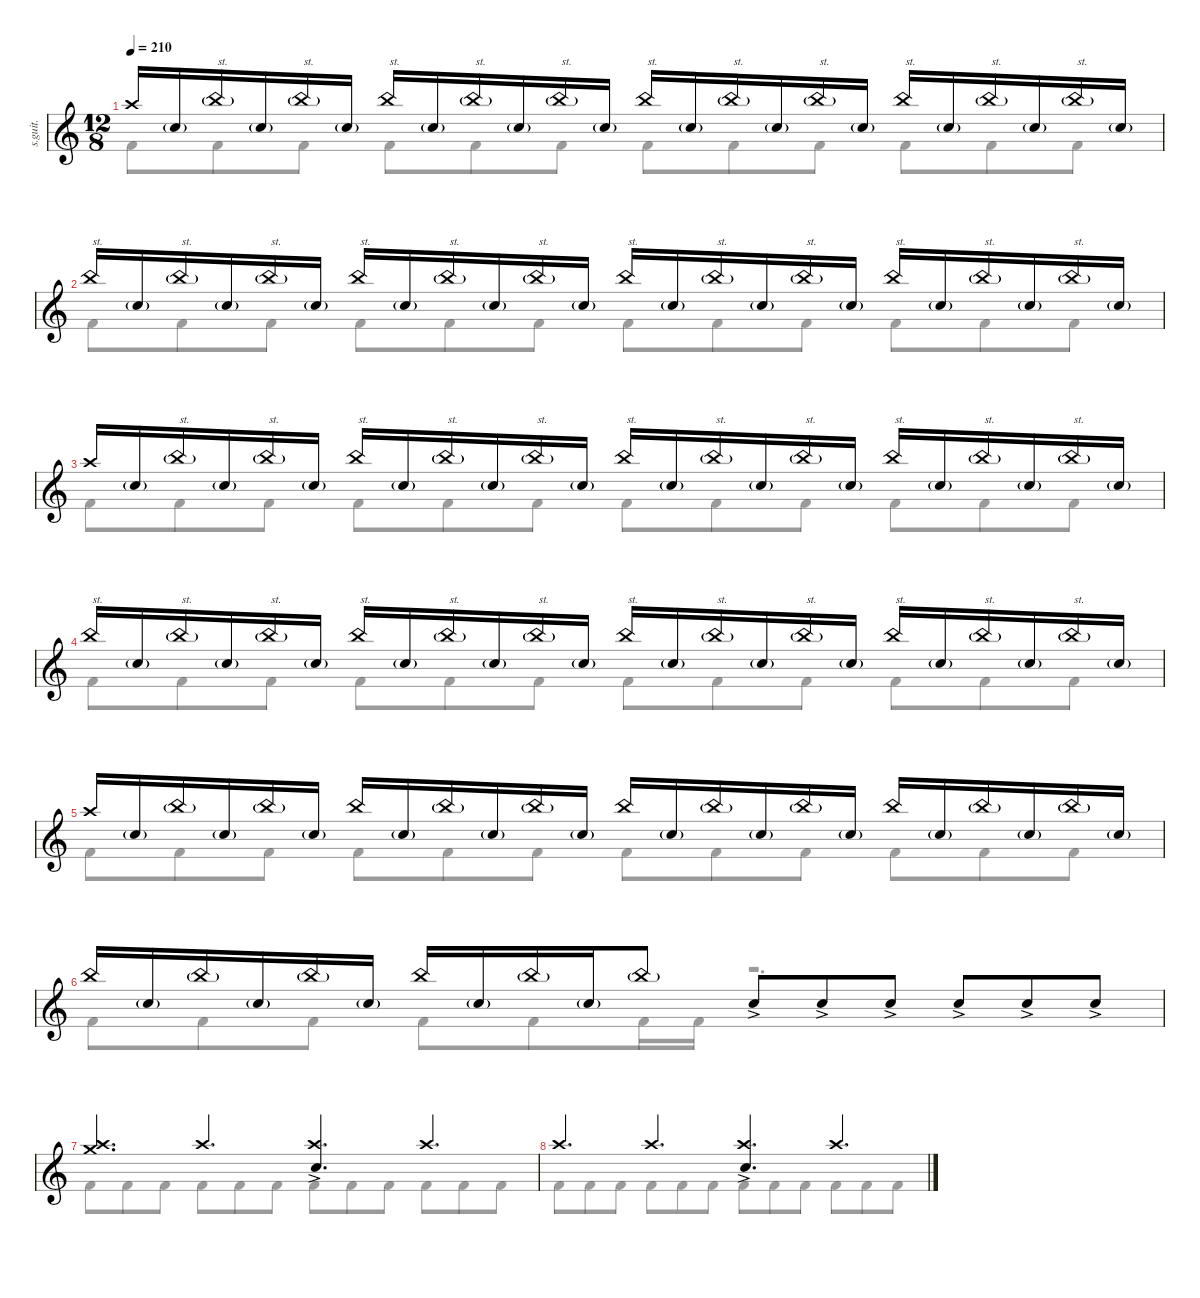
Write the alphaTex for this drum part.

\defaultSystemsLayout 4
\hideDynamics
\bracketExtendMode nobrackets
\track ("Percussion" "s.guit.") {instrument percussion}
\staff {score}
\articulation defaults
\voice
\ts (12 8)
\tempo 210
\clef g2
\ks c "Crash high (hit)".16{lyrics (0 "") lyrics (1 "") lyrics (2 "") lyrics (3 "") lyrics (4 "") dy f} "Snare (hit) 2"{g}.16{lyrics (0 "") lyrics (1 "") lyrics (2 "") lyrics (3 "") lyrics (4 "") dy ff} "China (hit)"{g}.16{txt "st." lyrics (0 "") lyrics (1 "") lyrics (2 "") lyrics (3 "") lyrics (4 "")} "Snare (hit) 2"{g}.16{lyrics (0 "") lyrics (1 "") lyrics (2 "") lyrics (3 "") lyrics (4 "")} "China (hit)"{g}.16{txt "st." lyrics (0 "") lyrics (1 "") lyrics (2 "") lyrics (3 "") lyrics (4 "")} "Snare (hit) 2"{g}.16{lyrics (0 "") lyrics (1 "") lyrics (2 "") lyrics (3 "") lyrics (4 "")} "China (hit)".16{txt "st." lyrics (0 "") lyrics (1 "") lyrics (2 "") lyrics (3 "") lyrics (4 "") dy f} "Snare (hit) 2"{g}.16{lyrics (0 "") lyrics (1 "") lyrics (2 "") lyrics (3 "") lyrics (4 "") dy ff} "China (hit)"{g}.16{txt "st." lyrics (0 "") lyrics (1 "") lyrics (2 "") lyrics (3 "") lyrics (4 "")} "Snare (hit) 2"{g}.16{lyrics (0 "") lyrics (1 "") lyrics (2 "") lyrics (3 "") lyrics (4 "")} "China (hit)"{g}.16{txt "st." lyrics (0 "") lyrics (1 "") lyrics (2 "") lyrics (3 "") lyrics (4 "")} "Snare (hit) 2"{g}.16{lyrics (0 "") lyrics (1 "") lyrics (2 "") lyrics (3 "") lyrics (4 "")} "China (hit)".16{txt "st." lyrics (0 "") lyrics (1 "") lyrics (2 "") lyrics (3 "") lyrics (4 "") dy f} "Snare (hit) 2"{g}.16{lyrics (0 "") lyrics (1 "") lyrics (2 "") lyrics (3 "") lyrics (4 "") dy ff} "China (hit)"{g}.16{txt "st." lyrics (0 "") lyrics (1 "") lyrics (2 "") lyrics (3 "") lyrics (4 "")} "Snare (hit) 2"{g}.16{lyrics (0 "") lyrics (1 "") lyrics (2 "") lyrics (3 "") lyrics (4 "")} "China (hit)"{g}.16{txt "st." lyrics (0 "") lyrics (1 "") lyrics (2 "") lyrics (3 "") lyrics (4 "")} "Snare (hit) 2"{g}.16{lyrics (0 "") lyrics (1 "") lyrics (2 "") lyrics (3 "") lyrics (4 "")} "China (hit)".16{txt "st." lyrics (0 "") lyrics (1 "") lyrics (2 "") lyrics (3 "") lyrics (4 "") dy f} "Snare (hit) 2"{g}.16{lyrics (0 "") lyrics (1 "") lyrics (2 "") lyrics (3 "") lyrics (4 "") dy ff} "China (hit)"{g}.16{txt "st." lyrics (0 "") lyrics (1 "") lyrics (2 "") lyrics (3 "") lyrics (4 "")} "Snare (hit) 2"{g}.16{lyrics (0 "") lyrics (1 "") lyrics (2 "") lyrics (3 "") lyrics (4 "")} "China (hit)"{g}.16{txt "st." lyrics (0 "") lyrics (1 "") lyrics (2 "") lyrics (3 "") lyrics (4 "")} "Snare (hit) 2"{g}.16{lyrics (0 "") lyrics (1 "") lyrics (2 "") lyrics (3 "") lyrics (4 "")}
|
"China (hit)".16{txt "st." lyrics (0 "") lyrics (1 "") lyrics (2 "") lyrics (3 "") lyrics (4 "") dy f} "Snare (hit) 2"{g}.16{lyrics (0 "") lyrics (1 "") lyrics (2 "") lyrics (3 "") lyrics (4 "") dy ff} "China (hit)"{g}.16{txt "st." lyrics (0 "") lyrics (1 "") lyrics (2 "") lyrics (3 "") lyrics (4 "")} "Snare (hit) 2"{g}.16{lyrics (0 "") lyrics (1 "") lyrics (2 "") lyrics (3 "") lyrics (4 "")} "China (hit)"{g}.16{txt "st." lyrics (0 "") lyrics (1 "") lyrics (2 "") lyrics (3 "") lyrics (4 "")} "Snare (hit) 2"{g}.16{lyrics (0 "") lyrics (1 "") lyrics (2 "") lyrics (3 "") lyrics (4 "")} "China (hit)".16{txt "st." lyrics (0 "") lyrics (1 "") lyrics (2 "") lyrics (3 "") lyrics (4 "") dy f} "Snare (hit) 2"{g}.16{lyrics (0 "") lyrics (1 "") lyrics (2 "") lyrics (3 "") lyrics (4 "") dy ff} "China (hit)"{g}.16{txt "st." lyrics (0 "") lyrics (1 "") lyrics (2 "") lyrics (3 "") lyrics (4 "")} "Snare (hit) 2"{g}.16{lyrics (0 "") lyrics (1 "") lyrics (2 "") lyrics (3 "") lyrics (4 "")} "China (hit)"{g}.16{txt "st." lyrics (0 "") lyrics (1 "") lyrics (2 "") lyrics (3 "") lyrics (4 "")} "Snare (hit) 2"{g}.16{lyrics (0 "") lyrics (1 "") lyrics (2 "") lyrics (3 "") lyrics (4 "")} "China (hit)".16{txt "st." lyrics (0 "") lyrics (1 "") lyrics (2 "") lyrics (3 "") lyrics (4 "") dy f} "Snare (hit) 2"{g}.16{lyrics (0 "") lyrics (1 "") lyrics (2 "") lyrics (3 "") lyrics (4 "") dy ff} "China (hit)"{g}.16{txt "st." lyrics (0 "") lyrics (1 "") lyrics (2 "") lyrics (3 "") lyrics (4 "")} "Snare (hit) 2"{g}.16{lyrics (0 "") lyrics (1 "") lyrics (2 "") lyrics (3 "") lyrics (4 "")} "China (hit)"{g}.16{txt "st." lyrics (0 "") lyrics (1 "") lyrics (2 "") lyrics (3 "") lyrics (4 "")} "Snare (hit) 2"{g}.16{lyrics (0 "") lyrics (1 "") lyrics (2 "") lyrics (3 "") lyrics (4 "")} "China (hit)".16{txt "st." lyrics (0 "") lyrics (1 "") lyrics (2 "") lyrics (3 "") lyrics (4 "") dy f} "Snare (hit) 2"{g}.16{lyrics (0 "") lyrics (1 "") lyrics (2 "") lyrics (3 "") lyrics (4 "") dy ff} "China (hit)"{g}.16{txt "st." lyrics (0 "") lyrics (1 "") lyrics (2 "") lyrics (3 "") lyrics (4 "")} "Snare (hit) 2"{g}.16{lyrics (0 "") lyrics (1 "") lyrics (2 "") lyrics (3 "") lyrics (4 "")} "China (hit)"{g}.16{txt "st." lyrics (0 "") lyrics (1 "") lyrics (2 "") lyrics (3 "") lyrics (4 "")} "Snare (hit) 2"{g}.16{lyrics (0 "") lyrics (1 "") lyrics (2 "") lyrics (3 "") lyrics (4 "")} |
"Crash high (hit)".16{lyrics (0 "") lyrics (1 "") lyrics (2 "") lyrics (3 "") lyrics (4 "") dy f} "Snare (hit) 2"{g}.16{lyrics (0 "") lyrics (1 "") lyrics (2 "") lyrics (3 "") lyrics (4 "") dy ff} "China (hit)"{g}.16{txt "st." lyrics (0 "") lyrics (1 "") lyrics (2 "") lyrics (3 "") lyrics (4 "")} "Snare (hit) 2"{g}.16{lyrics (0 "") lyrics (1 "") lyrics (2 "") lyrics (3 "") lyrics (4 "")} "China (hit)"{g}.16{txt "st." lyrics (0 "") lyrics (1 "") lyrics (2 "") lyrics (3 "") lyrics (4 "")} "Snare (hit) 2"{g}.16{lyrics (0 "") lyrics (1 "") lyrics (2 "") lyrics (3 "") lyrics (4 "")} "China (hit)".16{txt "st." lyrics (0 "") lyrics (1 "") lyrics (2 "") lyrics (3 "") lyrics (4 "") dy f} "Snare (hit) 2"{g}.16{lyrics (0 "") lyrics (1 "") lyrics (2 "") lyrics (3 "") lyrics (4 "") dy ff} "China (hit)"{g}.16{txt "st." lyrics (0 "") lyrics (1 "") lyrics (2 "") lyrics (3 "") lyrics (4 "")} "Snare (hit) 2"{g}.16{lyrics (0 "") lyrics (1 "") lyrics (2 "") lyrics (3 "") lyrics (4 "")} "China (hit)"{g}.16{txt "st." lyrics (0 "") lyrics (1 "") lyrics (2 "") lyrics (3 "") lyrics (4 "")} "Snare (hit) 2"{g}.16{lyrics (0 "") lyrics (1 "") lyrics (2 "") lyrics (3 "") lyrics (4 "")} "China (hit)".16{txt "st." lyrics (0 "") lyrics (1 "") lyrics (2 "") lyrics (3 "") lyrics (4 "") dy f} "Snare (hit) 2"{g}.16{lyrics (0 "") lyrics (1 "") lyrics (2 "") lyrics (3 "") lyrics (4 "") dy ff} "China (hit)"{g}.16{txt "st." lyrics (0 "") lyrics (1 "") lyrics (2 "") lyrics (3 "") lyrics (4 "")} "Snare (hit) 2"{g}.16{lyrics (0 "") lyrics (1 "") lyrics (2 "") lyrics (3 "") lyrics (4 "")} "China (hit)"{g}.16{txt "st." lyrics (0 "") lyrics (1 "") lyrics (2 "") lyrics (3 "") lyrics (4 "")} "Snare (hit) 2"{g}.16{lyrics (0 "") lyrics (1 "") lyrics (2 "") lyrics (3 "") lyrics (4 "")} "China (hit)".16{txt "st." lyrics (0 "") lyrics (1 "") lyrics (2 "") lyrics (3 "") lyrics (4 "") dy f} "Snare (hit) 2"{g}.16{lyrics (0 "") lyrics (1 "") lyrics (2 "") lyrics (3 "") lyrics (4 "") dy ff} "China (hit)"{g}.16{txt "st." lyrics (0 "") lyrics (1 "") lyrics (2 "") lyrics (3 "") lyrics (4 "")} "Snare (hit) 2"{g}.16{lyrics (0 "") lyrics (1 "") lyrics (2 "") lyrics (3 "") lyrics (4 "")} "China (hit)"{g}.16{txt "st." lyrics (0 "") lyrics (1 "") lyrics (2 "") lyrics (3 "") lyrics (4 "")} "Snare (hit) 2"{g}.16{lyrics (0 "") lyrics (1 "") lyrics (2 "") lyrics (3 "") lyrics (4 "")} |
"China (hit)".16{txt "st." lyrics (0 "") lyrics (1 "") lyrics (2 "") lyrics (3 "") lyrics (4 "") dy f} "Snare (hit) 2"{g}.16{lyrics (0 "") lyrics (1 "") lyrics (2 "") lyrics (3 "") lyrics (4 "") dy ff} "China (hit)"{g}.16{txt "st." lyrics (0 "") lyrics (1 "") lyrics (2 "") lyrics (3 "") lyrics (4 "")} "Snare (hit) 2"{g}.16{lyrics (0 "") lyrics (1 "") lyrics (2 "") lyrics (3 "") lyrics (4 "")} "China (hit)"{g}.16{txt "st." lyrics (0 "") lyrics (1 "") lyrics (2 "") lyrics (3 "") lyrics (4 "")} "Snare (hit) 2"{g}.16{lyrics (0 "") lyrics (1 "") lyrics (2 "") lyrics (3 "") lyrics (4 "")} "China (hit)".16{txt "st." lyrics (0 "") lyrics (1 "") lyrics (2 "") lyrics (3 "") lyrics (4 "") dy f} "Snare (hit) 2"{g}.16{lyrics (0 "") lyrics (1 "") lyrics (2 "") lyrics (3 "") lyrics (4 "") dy ff} "China (hit)"{g}.16{txt "st." lyrics (0 "") lyrics (1 "") lyrics (2 "") lyrics (3 "") lyrics (4 "")} "Snare (hit) 2"{g}.16{lyrics (0 "") lyrics (1 "") lyrics (2 "") lyrics (3 "") lyrics (4 "")} "China (hit)"{g}.16{txt "st." lyrics (0 "") lyrics (1 "") lyrics (2 "") lyrics (3 "") lyrics (4 "")} "Snare (hit) 2"{g}.16{lyrics (0 "") lyrics (1 "") lyrics (2 "") lyrics (3 "") lyrics (4 "")} "China (hit)".16{txt "st." lyrics (0 "") lyrics (1 "") lyrics (2 "") lyrics (3 "") lyrics (4 "") dy f} "Snare (hit) 2"{g}.16{lyrics (0 "") lyrics (1 "") lyrics (2 "") lyrics (3 "") lyrics (4 "") dy ff} "China (hit)"{g}.16{txt "st." lyrics (0 "") lyrics (1 "") lyrics (2 "") lyrics (3 "") lyrics (4 "")} "Snare (hit) 2"{g}.16{lyrics (0 "") lyrics (1 "") lyrics (2 "") lyrics (3 "") lyrics (4 "")} "China (hit)"{g}.16{txt "st." lyrics (0 "") lyrics (1 "") lyrics (2 "") lyrics (3 "") lyrics (4 "")} "Snare (hit) 2"{g}.16{lyrics (0 "") lyrics (1 "") lyrics (2 "") lyrics (3 "") lyrics (4 "")} "China (hit)".16{txt "st." lyrics (0 "") lyrics (1 "") lyrics (2 "") lyrics (3 "") lyrics (4 "") dy f} "Snare (hit) 2"{g}.16{lyrics (0 "") lyrics (1 "") lyrics (2 "") lyrics (3 "") lyrics (4 "") dy ff} "China (hit)"{g}.16{txt "st." lyrics (0 "") lyrics (1 "") lyrics (2 "") lyrics (3 "") lyrics (4 "")} "Snare (hit) 2"{g}.16{lyrics (0 "") lyrics (1 "") lyrics (2 "") lyrics (3 "") lyrics (4 "")} "China (hit)"{g}.16{txt "st." lyrics (0 "") lyrics (1 "") lyrics (2 "") lyrics (3 "") lyrics (4 "")} "Snare (hit) 2"{g}.16{lyrics (0 "") lyrics (1 "") lyrics (2 "") lyrics (3 "") lyrics (4 "")} |
"Crash high (hit)".16{lyrics (0 "") lyrics (1 "") lyrics (2 "") lyrics (3 "") lyrics (4 "") dy f} "Snare (hit) 2"{g}.16{lyrics (0 "") lyrics (1 "") lyrics (2 "") lyrics (3 "") lyrics (4 "") dy ff} "China (hit)"{g}.16{lyrics (0 "") lyrics (1 "") lyrics (2 "") lyrics (3 "") lyrics (4 "")} "Snare (hit) 2"{g}.16{lyrics (0 "") lyrics (1 "") lyrics (2 "") lyrics (3 "") lyrics (4 "")} "China (hit)"{g}.16{lyrics (0 "") lyrics (1 "") lyrics (2 "") lyrics (3 "") lyrics (4 "")} "Snare (hit) 2"{g}.16{lyrics (0 "") lyrics (1 "") lyrics (2 "") lyrics (3 "") lyrics (4 "")} "China (hit)".16{lyrics (0 "") lyrics (1 "") lyrics (2 "") lyrics (3 "") lyrics (4 "") dy f} "Snare (hit) 2"{g}.16{lyrics (0 "") lyrics (1 "") lyrics (2 "") lyrics (3 "") lyrics (4 "") dy ff} "China (hit)"{g}.16{lyrics (0 "") lyrics (1 "") lyrics (2 "") lyrics (3 "") lyrics (4 "")} "Snare (hit) 2"{g}.16{lyrics (0 "") lyrics (1 "") lyrics (2 "") lyrics (3 "") lyrics (4 "")} "China (hit)"{g}.16{lyrics (0 "") lyrics (1 "") lyrics (2 "") lyrics (3 "") lyrics (4 "")} "Snare (hit) 2"{g}.16{lyrics (0 "") lyrics (1 "") lyrics (2 "") lyrics (3 "") lyrics (4 "")} "China (hit)".16{lyrics (0 "") lyrics (1 "") lyrics (2 "") lyrics (3 "") lyrics (4 "") dy f} "Snare (hit) 2"{g}.16{lyrics (0 "") lyrics (1 "") lyrics (2 "") lyrics (3 "") lyrics (4 "") dy ff} "China (hit)"{g}.16{lyrics (0 "") lyrics (1 "") lyrics (2 "") lyrics (3 "") lyrics (4 "")} "Snare (hit) 2"{g}.16{lyrics (0 "") lyrics (1 "") lyrics (2 "") lyrics (3 "") lyrics (4 "")} "China (hit)"{g}.16{lyrics (0 "") lyrics (1 "") lyrics (2 "") lyrics (3 "") lyrics (4 "")} "Snare (hit) 2"{g}.16{lyrics (0 "") lyrics (1 "") lyrics (2 "") lyrics (3 "") lyrics (4 "")} "China (hit)".16{lyrics (0 "") lyrics (1 "") lyrics (2 "") lyrics (3 "") lyrics (4 "") dy f} "Snare (hit) 2"{g}.16{lyrics (0 "") lyrics (1 "") lyrics (2 "") lyrics (3 "") lyrics (4 "") dy ff} "China (hit)"{g}.16{lyrics (0 "") lyrics (1 "") lyrics (2 "") lyrics (3 "") lyrics (4 "")} "Snare (hit) 2"{g}.16{lyrics (0 "") lyrics (1 "") lyrics (2 "") lyrics (3 "") lyrics (4 "")} "China (hit)"{g}.16{lyrics (0 "") lyrics (1 "") lyrics (2 "") lyrics (3 "") lyrics (4 "")} "Snare (hit) 2"{g}.16{lyrics (0 "") lyrics (1 "") lyrics (2 "") lyrics (3 "") lyrics (4 "")} |
"China (hit)".16{lyrics (0 "") lyrics (1 "") lyrics (2 "") lyrics (3 "") lyrics (4 "") dy f} "Snare (hit) 2"{g}.16{lyrics (0 "") lyrics (1 "") lyrics (2 "") lyrics (3 "") lyrics (4 "") dy ff} "China (hit)"{g}.16{lyrics (0 "") lyrics (1 "") lyrics (2 "") lyrics (3 "") lyrics (4 "")} "Snare (hit) 2"{g}.16{lyrics (0 "") lyrics (1 "") lyrics (2 "") lyrics (3 "") lyrics (4 "")} "China (hit)"{g}.16{lyrics (0 "") lyrics (1 "") lyrics (2 "") lyrics (3 "") lyrics (4 "")} "Snare (hit) 2"{g}.16{lyrics (0 "") lyrics (1 "") lyrics (2 "") lyrics (3 "") lyrics (4 "")} "China (hit)".16{lyrics (0 "") lyrics (1 "") lyrics (2 "") lyrics (3 "") lyrics (4 "") dy f} "Snare (hit) 2"{g}.16{lyrics (0 "") lyrics (1 "") lyrics (2 "") lyrics (3 "") lyrics (4 "") dy ff} "China (hit)"{g}.16{lyrics (0 "") lyrics (1 "") lyrics (2 "") lyrics (3 "") lyrics (4 "")} "Snare (hit) 2"{g}.16{lyrics (0 "") lyrics (1 "") lyrics (2 "") lyrics (3 "") lyrics (4 "")} "China (hit)"{g}.8{lyrics (0 "") lyrics (1 "") lyrics (2 "") lyrics (3 "") lyrics (4 "")} "Snare (hit) 2"{ac}.8{lyrics (0 "") lyrics (1 "") lyrics (2 "") lyrics (3 "") lyrics (4 "") dy mf} "Snare (hit) 2"{ac}.8{lyrics (0 "") lyrics (1 "") lyrics (2 "") lyrics (3 "") lyrics (4 "")} "Snare (hit) 2"{ac}.8{lyrics (0 "") lyrics (1 "") lyrics (2 "") lyrics (3 "") lyrics (4 "")} "Snare (hit) 2"{ac}.8{lyrics (0 "") lyrics (1 "") lyrics (2 "") lyrics (3 "") lyrics (4 "")} "Snare (hit) 2"{ac}.8{lyrics (0 "") lyrics (1 "") lyrics (2 "") lyrics (3 "") lyrics (4 "")} "Snare (hit) 2"{ac}.8{lyrics (0 "") lyrics (1 "") lyrics (2 "") lyrics (3 "") lyrics (4 "")} |
("Crash high (hit)" "Crash medium (hit)").4{d lyrics (0 "") lyrics (1 "") lyrics (2 "") lyrics (3 "") lyrics (4 "") dy f} "Crash high (hit)".4{d lyrics (0 "") lyrics (1 "") lyrics (2 "") lyrics (3 "") lyrics (4 "")} ("Crash high (hit)" "Snare (hit) 2"{ac}).4{d lyrics (0 "") lyrics (1 "") lyrics (2 "") lyrics (3 "") lyrics (4 "")} "Crash high (hit)".4{d lyrics (0 "") lyrics (1 "") lyrics (2 "") lyrics (3 "") lyrics (4 "")} |
"Crash high (hit)".4{d lyrics (0 "") lyrics (1 "") lyrics (2 "") lyrics (3 "") lyrics (4 "")} "Crash high (hit)".4{d lyrics (0 "") lyrics (1 "") lyrics (2 "") lyrics (3 "") lyrics (4 "")} ("Crash high (hit)" "Snare (hit) 2"{ac}).4{d lyrics (0 "") lyrics (1 "") lyrics (2 "") lyrics (3 "") lyrics (4 "")} "Crash high (hit)".4{d lyrics (0 "") lyrics (1 "") lyrics (2 "") lyrics (3 "") lyrics (4 "")}
\voice
\clef g2
\ottava regular
\simile none
\ks c "Kick (hit) 2".8{lyrics (0 "") lyrics (1 "") lyrics (2 "") lyrics (3 "") lyrics (4 "") dy f} "Kick (hit) 2".8{lyrics (0 "") lyrics (1 "") lyrics (2 "") lyrics (3 "") lyrics (4 "")} "Kick (hit) 2".8{lyrics (0 "") lyrics (1 "") lyrics (2 "") lyrics (3 "") lyrics (4 "")} "Kick (hit) 2".8{lyrics (0 "") lyrics (1 "") lyrics (2 "") lyrics (3 "") lyrics (4 "")} "Kick (hit) 2".8{lyrics (0 "") lyrics (1 "") lyrics (2 "") lyrics (3 "") lyrics (4 "")} "Kick (hit) 2".8{lyrics (0 "") lyrics (1 "") lyrics (2 "") lyrics (3 "") lyrics (4 "")} "Kick (hit) 2".8{lyrics (0 "") lyrics (1 "") lyrics (2 "") lyrics (3 "") lyrics (4 "")} "Kick (hit) 2".8{lyrics (0 "") lyrics (1 "") lyrics (2 "") lyrics (3 "") lyrics (4 "")} "Kick (hit) 2".8{lyrics (0 "") lyrics (1 "") lyrics (2 "") lyrics (3 "") lyrics (4 "")} "Kick (hit) 2".8{lyrics (0 "") lyrics (1 "") lyrics (2 "") lyrics (3 "") lyrics (4 "")} "Kick (hit) 2".8{lyrics (0 "") lyrics (1 "") lyrics (2 "") lyrics (3 "") lyrics (4 "")} "Kick (hit) 2".8{lyrics (0 "") lyrics (1 "") lyrics (2 "") lyrics (3 "") lyrics (4 "")}
|
"Kick (hit) 2".8{lyrics (0 "") lyrics (1 "") lyrics (2 "") lyrics (3 "") lyrics (4 "")} "Kick (hit) 2".8{lyrics (0 "") lyrics (1 "") lyrics (2 "") lyrics (3 "") lyrics (4 "")} "Kick (hit) 2".8{lyrics (0 "") lyrics (1 "") lyrics (2 "") lyrics (3 "") lyrics (4 "")} "Kick (hit) 2".8{lyrics (0 "") lyrics (1 "") lyrics (2 "") lyrics (3 "") lyrics (4 "")} "Kick (hit) 2".8{lyrics (0 "") lyrics (1 "") lyrics (2 "") lyrics (3 "") lyrics (4 "")} "Kick (hit) 2".8{lyrics (0 "") lyrics (1 "") lyrics (2 "") lyrics (3 "") lyrics (4 "")} "Kick (hit) 2".8{lyrics (0 "") lyrics (1 "") lyrics (2 "") lyrics (3 "") lyrics (4 "")} "Kick (hit) 2".8{lyrics (0 "") lyrics (1 "") lyrics (2 "") lyrics (3 "") lyrics (4 "")} "Kick (hit) 2".8{lyrics (0 "") lyrics (1 "") lyrics (2 "") lyrics (3 "") lyrics (4 "")} "Kick (hit) 2".8{lyrics (0 "") lyrics (1 "") lyrics (2 "") lyrics (3 "") lyrics (4 "")} "Kick (hit) 2".8{lyrics (0 "") lyrics (1 "") lyrics (2 "") lyrics (3 "") lyrics (4 "")} "Kick (hit) 2".8{lyrics (0 "") lyrics (1 "") lyrics (2 "") lyrics (3 "") lyrics (4 "")} |
"Kick (hit) 2".8{lyrics (0 "") lyrics (1 "") lyrics (2 "") lyrics (3 "") lyrics (4 "")} "Kick (hit) 2".8{lyrics (0 "") lyrics (1 "") lyrics (2 "") lyrics (3 "") lyrics (4 "")} "Kick (hit) 2".8{lyrics (0 "") lyrics (1 "") lyrics (2 "") lyrics (3 "") lyrics (4 "")} "Kick (hit) 2".8{lyrics (0 "") lyrics (1 "") lyrics (2 "") lyrics (3 "") lyrics (4 "")} "Kick (hit) 2".8{lyrics (0 "") lyrics (1 "") lyrics (2 "") lyrics (3 "") lyrics (4 "")} "Kick (hit) 2".8{lyrics (0 "") lyrics (1 "") lyrics (2 "") lyrics (3 "") lyrics (4 "")} "Kick (hit) 2".8{lyrics (0 "") lyrics (1 "") lyrics (2 "") lyrics (3 "") lyrics (4 "")} "Kick (hit) 2".8{lyrics (0 "") lyrics (1 "") lyrics (2 "") lyrics (3 "") lyrics (4 "")} "Kick (hit) 2".8{lyrics (0 "") lyrics (1 "") lyrics (2 "") lyrics (3 "") lyrics (4 "")} "Kick (hit) 2".8{lyrics (0 "") lyrics (1 "") lyrics (2 "") lyrics (3 "") lyrics (4 "")} "Kick (hit) 2".8{lyrics (0 "") lyrics (1 "") lyrics (2 "") lyrics (3 "") lyrics (4 "")} "Kick (hit) 2".8{lyrics (0 "") lyrics (1 "") lyrics (2 "") lyrics (3 "") lyrics (4 "")} |
"Kick (hit) 2".8{lyrics (0 "") lyrics (1 "") lyrics (2 "") lyrics (3 "") lyrics (4 "")} "Kick (hit) 2".8{lyrics (0 "") lyrics (1 "") lyrics (2 "") lyrics (3 "") lyrics (4 "")} "Kick (hit) 2".8{lyrics (0 "") lyrics (1 "") lyrics (2 "") lyrics (3 "") lyrics (4 "")} "Kick (hit) 2".8{lyrics (0 "") lyrics (1 "") lyrics (2 "") lyrics (3 "") lyrics (4 "")} "Kick (hit) 2".8{lyrics (0 "") lyrics (1 "") lyrics (2 "") lyrics (3 "") lyrics (4 "")} "Kick (hit) 2".8{lyrics (0 "") lyrics (1 "") lyrics (2 "") lyrics (3 "") lyrics (4 "")} "Kick (hit) 2".8{lyrics (0 "") lyrics (1 "") lyrics (2 "") lyrics (3 "") lyrics (4 "")} "Kick (hit) 2".8{lyrics (0 "") lyrics (1 "") lyrics (2 "") lyrics (3 "") lyrics (4 "")} "Kick (hit) 2".8{lyrics (0 "") lyrics (1 "") lyrics (2 "") lyrics (3 "") lyrics (4 "")} "Kick (hit) 2".8{lyrics (0 "") lyrics (1 "") lyrics (2 "") lyrics (3 "") lyrics (4 "")} "Kick (hit) 2".8{lyrics (0 "") lyrics (1 "") lyrics (2 "") lyrics (3 "") lyrics (4 "")} "Kick (hit) 2".8{lyrics (0 "") lyrics (1 "") lyrics (2 "") lyrics (3 "") lyrics (4 "")} |
"Kick (hit) 2".8{lyrics (0 "") lyrics (1 "") lyrics (2 "") lyrics (3 "") lyrics (4 "")} "Kick (hit) 2".8{lyrics (0 "") lyrics (1 "") lyrics (2 "") lyrics (3 "") lyrics (4 "")} "Kick (hit) 2".8{lyrics (0 "") lyrics (1 "") lyrics (2 "") lyrics (3 "") lyrics (4 "")} "Kick (hit) 2".8{lyrics (0 "") lyrics (1 "") lyrics (2 "") lyrics (3 "") lyrics (4 "")} "Kick (hit) 2".8{lyrics (0 "") lyrics (1 "") lyrics (2 "") lyrics (3 "") lyrics (4 "")} "Kick (hit) 2".8{lyrics (0 "") lyrics (1 "") lyrics (2 "") lyrics (3 "") lyrics (4 "")} "Kick (hit) 2".8{lyrics (0 "") lyrics (1 "") lyrics (2 "") lyrics (3 "") lyrics (4 "")} "Kick (hit) 2".8{lyrics (0 "") lyrics (1 "") lyrics (2 "") lyrics (3 "") lyrics (4 "")} "Kick (hit) 2".8{lyrics (0 "") lyrics (1 "") lyrics (2 "") lyrics (3 "") lyrics (4 "")} "Kick (hit) 2".8{lyrics (0 "") lyrics (1 "") lyrics (2 "") lyrics (3 "") lyrics (4 "")} "Kick (hit) 2".8{lyrics (0 "") lyrics (1 "") lyrics (2 "") lyrics (3 "") lyrics (4 "")} "Kick (hit) 2".8{lyrics (0 "") lyrics (1 "") lyrics (2 "") lyrics (3 "") lyrics (4 "")} |
"Kick (hit) 2".8{lyrics (0 "") lyrics (1 "") lyrics (2 "") lyrics (3 "") lyrics (4 "")} "Kick (hit) 2".8{lyrics (0 "") lyrics (1 "") lyrics (2 "") lyrics (3 "") lyrics (4 "")} "Kick (hit) 2".8{lyrics (0 "") lyrics (1 "") lyrics (2 "") lyrics (3 "") lyrics (4 "")} "Kick (hit) 2".8{lyrics (0 "") lyrics (1 "") lyrics (2 "") lyrics (3 "") lyrics (4 "")} "Kick (hit) 2".8{lyrics (0 "") lyrics (1 "") lyrics (2 "") lyrics (3 "") lyrics (4 "")} "Kick (hit) 2".16{lyrics (0 "") lyrics (1 "") lyrics (2 "") lyrics (3 "") lyrics (4 "")} "Kick (hit) 2".16{lyrics (0 "") lyrics (1 "") lyrics (2 "") lyrics (3 "") lyrics (4 "")} r.2{d} |
"Kick (hit) 2".8{lyrics (0 "") lyrics (1 "") lyrics (2 "") lyrics (3 "") lyrics (4 "")} "Kick (hit) 2".8{lyrics (0 "") lyrics (1 "") lyrics (2 "") lyrics (3 "") lyrics (4 "")} "Kick (hit) 2".8{lyrics (0 "") lyrics (1 "") lyrics (2 "") lyrics (3 "") lyrics (4 "")} "Kick (hit) 2".8{lyrics (0 "") lyrics (1 "") lyrics (2 "") lyrics (3 "") lyrics (4 "")} "Kick (hit) 2".8{lyrics (0 "") lyrics (1 "") lyrics (2 "") lyrics (3 "") lyrics (4 "")} "Kick (hit) 2".8{lyrics (0 "") lyrics (1 "") lyrics (2 "") lyrics (3 "") lyrics (4 "")} "Kick (hit) 2".8{lyrics (0 "") lyrics (1 "") lyrics (2 "") lyrics (3 "") lyrics (4 "")} "Kick (hit) 2".8{lyrics (0 "") lyrics (1 "") lyrics (2 "") lyrics (3 "") lyrics (4 "")} "Kick (hit) 2".8{lyrics (0 "") lyrics (1 "") lyrics (2 "") lyrics (3 "") lyrics (4 "")} "Kick (hit) 2".8{lyrics (0 "") lyrics (1 "") lyrics (2 "") lyrics (3 "") lyrics (4 "")} "Kick (hit) 2".8{lyrics (0 "") lyrics (1 "") lyrics (2 "") lyrics (3 "") lyrics (4 "")} "Kick (hit) 2".8{lyrics (0 "") lyrics (1 "") lyrics (2 "") lyrics (3 "") lyrics (4 "")} |
"Kick (hit) 2".8{lyrics (0 "") lyrics (1 "") lyrics (2 "") lyrics (3 "") lyrics (4 "")} "Kick (hit) 2".8{lyrics (0 "") lyrics (1 "") lyrics (2 "") lyrics (3 "") lyrics (4 "")} "Kick (hit) 2".8{lyrics (0 "") lyrics (1 "") lyrics (2 "") lyrics (3 "") lyrics (4 "")} "Kick (hit) 2".8{lyrics (0 "") lyrics (1 "") lyrics (2 "") lyrics (3 "") lyrics (4 "")} "Kick (hit) 2".8{lyrics (0 "") lyrics (1 "") lyrics (2 "") lyrics (3 "") lyrics (4 "")} "Kick (hit) 2".8{lyrics (0 "") lyrics (1 "") lyrics (2 "") lyrics (3 "") lyrics (4 "")} "Kick (hit) 2".8{lyrics (0 "") lyrics (1 "") lyrics (2 "") lyrics (3 "") lyrics (4 "")} "Kick (hit) 2".8{lyrics (0 "") lyrics (1 "") lyrics (2 "") lyrics (3 "") lyrics (4 "")} "Kick (hit) 2".8{lyrics (0 "") lyrics (1 "") lyrics (2 "") lyrics (3 "") lyrics (4 "")} "Kick (hit) 2".8{lyrics (0 "") lyrics (1 "") lyrics (2 "") lyrics (3 "") lyrics (4 "")} "Kick (hit) 2".8{lyrics (0 "") lyrics (1 "") lyrics (2 "") lyrics (3 "") lyrics (4 "")} "Kick (hit) 2".8{lyrics (0 "") lyrics (1 "") lyrics (2 "") lyrics (3 "") lyrics (4 "")}
